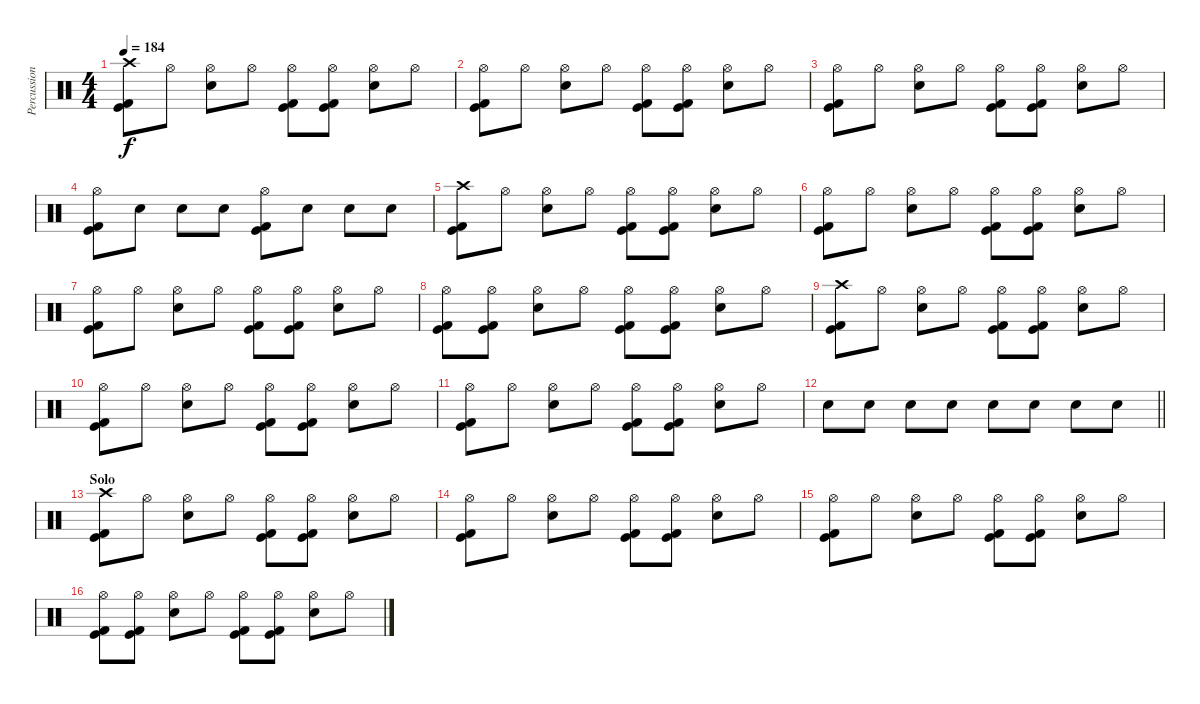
\track ("Percussion" "Percussion") {instrument percussion}
\staff {score}
\articulation defaults
\ts (4 4)
\tempo 184
\clef neutral
\ks c
("Crash high (hit)" "Kick (hit)" "Kick (hit) 2").8{dy f} "Hi-Hat (open)".8 ("Hi-Hat (open)" "Electric Snare (hit)").8 "Hi-Hat (open)".8 ("Hi-Hat (open)" "Kick (hit)" "Kick (hit) 2").8 ("Hi-Hat (open)" "Kick (hit)" "Kick (hit) 2").8 ("Hi-Hat (open)" "Electric Snare (hit)").8 "Hi-Hat (open)".8 |
("Hi-Hat (open)" "Kick (hit)" "Kick (hit) 2").8 "Hi-Hat (open)".8 ("Hi-Hat (open)" "Electric Snare (hit)").8 "Hi-Hat (open)".8 ("Hi-Hat (open)" "Kick (hit)" "Kick (hit) 2").8 ("Hi-Hat (open)" "Kick (hit)" "Kick (hit) 2").8 ("Hi-Hat (open)" "Electric Snare (hit)").8 "Hi-Hat (open)".8 |
("Hi-Hat (open)" "Kick (hit)" "Kick (hit) 2").8 "Hi-Hat (open)".8 ("Hi-Hat (open)" "Electric Snare (hit)").8 "Hi-Hat (open)".8 ("Hi-Hat (open)" "Kick (hit)" "Kick (hit) 2").8 ("Hi-Hat (open)" "Kick (hit)" "Kick (hit) 2").8 ("Hi-Hat (open)" "Electric Snare (hit)").8 "Hi-Hat (open)".8 |
("Hi-Hat (open)" "Kick (hit)" "Kick (hit) 2").8 "Electric Snare (hit)".8 "Electric Snare (hit)".8 "Electric Snare (hit)".8 ("Hi-Hat (open)" "Kick (hit)" "Kick (hit) 2").8 "Electric Snare (hit)".8 "Electric Snare (hit)".8 "Electric Snare (hit)".8 |
("Crash high (hit)" "Kick (hit)" "Kick (hit) 2").8 "Hi-Hat (open)".8 ("Hi-Hat (open)" "Electric Snare (hit)").8 "Hi-Hat (open)".8 ("Hi-Hat (open)" "Kick (hit)" "Kick (hit) 2").8 ("Hi-Hat (open)" "Kick (hit)" "Kick (hit) 2").8 ("Hi-Hat (open)" "Electric Snare (hit)").8 "Hi-Hat (open)".8 |
("Hi-Hat (open)" "Kick (hit)" "Kick (hit) 2").8 "Hi-Hat (open)".8 ("Hi-Hat (open)" "Electric Snare (hit)").8 "Hi-Hat (open)".8 ("Hi-Hat (open)" "Kick (hit)" "Kick (hit) 2").8 ("Hi-Hat (open)" "Kick (hit)" "Kick (hit) 2").8 ("Hi-Hat (open)" "Electric Snare (hit)").8 "Hi-Hat (open)".8 |
("Hi-Hat (open)" "Kick (hit)" "Kick (hit) 2").8 "Hi-Hat (open)".8 ("Hi-Hat (open)" "Electric Snare (hit)").8 "Hi-Hat (open)".8 ("Hi-Hat (open)" "Kick (hit)" "Kick (hit) 2").8 ("Hi-Hat (open)" "Kick (hit)" "Kick (hit) 2").8 ("Hi-Hat (open)" "Electric Snare (hit)").8 "Hi-Hat (open)".8 |
("Hi-Hat (open)" "Kick (hit)" "Kick (hit) 2").8 ("Hi-Hat (open)" "Kick (hit)" "Kick (hit) 2").8 ("Hi-Hat (open)" "Electric Snare (hit)").8 "Hi-Hat (open)".8 ("Hi-Hat (open)" "Kick (hit)" "Kick (hit) 2").8 ("Hi-Hat (open)" "Kick (hit)" "Kick (hit) 2").8 ("Hi-Hat (open)" "Electric Snare (hit)").8 "Hi-Hat (open)".8 |
("Crash high (hit)" "Kick (hit)" "Kick (hit) 2").8 "Hi-Hat (open)".8 ("Hi-Hat (open)" "Electric Snare (hit)").8 "Hi-Hat (open)".8 ("Hi-Hat (open)" "Kick (hit)" "Kick (hit) 2").8 ("Hi-Hat (open)" "Kick (hit)" "Kick (hit) 2").8 ("Hi-Hat (open)" "Electric Snare (hit)").8 "Hi-Hat (open)".8 |
("Hi-Hat (open)" "Kick (hit)" "Kick (hit) 2").8 "Hi-Hat (open)".8 ("Hi-Hat (open)" "Electric Snare (hit)").8 "Hi-Hat (open)".8 ("Hi-Hat (open)" "Kick (hit)" "Kick (hit) 2").8 ("Hi-Hat (open)" "Kick (hit)" "Kick (hit) 2").8 ("Hi-Hat (open)" "Electric Snare (hit)").8 "Hi-Hat (open)".8 |
("Hi-Hat (open)" "Kick (hit)" "Kick (hit) 2").8 "Hi-Hat (open)".8 ("Hi-Hat (open)" "Electric Snare (hit)").8 "Hi-Hat (open)".8 ("Hi-Hat (open)" "Kick (hit)" "Kick (hit) 2").8 ("Hi-Hat (open)" "Kick (hit)" "Kick (hit) 2").8 ("Hi-Hat (open)" "Electric Snare (hit)").8 "Hi-Hat (open)".8 |
\barLineRight lightlight "Electric Snare (hit)".8 "Electric Snare (hit)".8 "Electric Snare (hit)".8 "Electric Snare (hit)".8 "Electric Snare (hit)".8 "Electric Snare (hit)".8 "Electric Snare (hit)".8 "Electric Snare (hit)".8
|
\section ("" "Solo")
("Crash high (hit)" "Kick (hit)" "Kick (hit) 2").8 "Hi-Hat (open)".8 ("Hi-Hat (open)" "Electric Snare (hit)").8 "Hi-Hat (open)".8 ("Hi-Hat (open)" "Kick (hit)" "Kick (hit) 2").8 ("Hi-Hat (open)" "Kick (hit)" "Kick (hit) 2").8 ("Hi-Hat (open)" "Electric Snare (hit)").8 "Hi-Hat (open)".8 |
("Hi-Hat (open)" "Kick (hit)" "Kick (hit) 2").8 "Hi-Hat (open)".8 ("Hi-Hat (open)" "Electric Snare (hit)").8 "Hi-Hat (open)".8 ("Hi-Hat (open)" "Kick (hit)" "Kick (hit) 2").8 ("Hi-Hat (open)" "Kick (hit)" "Kick (hit) 2").8 ("Hi-Hat (open)" "Electric Snare (hit)").8 "Hi-Hat (open)".8 |
("Hi-Hat (open)" "Kick (hit)" "Kick (hit) 2").8 "Hi-Hat (open)".8 ("Hi-Hat (open)" "Electric Snare (hit)").8 "Hi-Hat (open)".8 ("Hi-Hat (open)" "Kick (hit)" "Kick (hit) 2").8 ("Hi-Hat (open)" "Kick (hit)" "Kick (hit) 2").8 ("Hi-Hat (open)" "Electric Snare (hit)").8 "Hi-Hat (open)".8 |
("Hi-Hat (open)" "Kick (hit)" "Kick (hit) 2").8 ("Hi-Hat (open)" "Kick (hit)" "Kick (hit) 2").8 ("Hi-Hat (open)" "Electric Snare (hit)").8 "Hi-Hat (open)".8 ("Hi-Hat (open)" "Kick (hit)" "Kick (hit) 2").8 ("Hi-Hat (open)" "Kick (hit)" "Kick (hit) 2").8 ("Hi-Hat (open)" "Electric Snare (hit)").8 "Hi-Hat (open)".8
